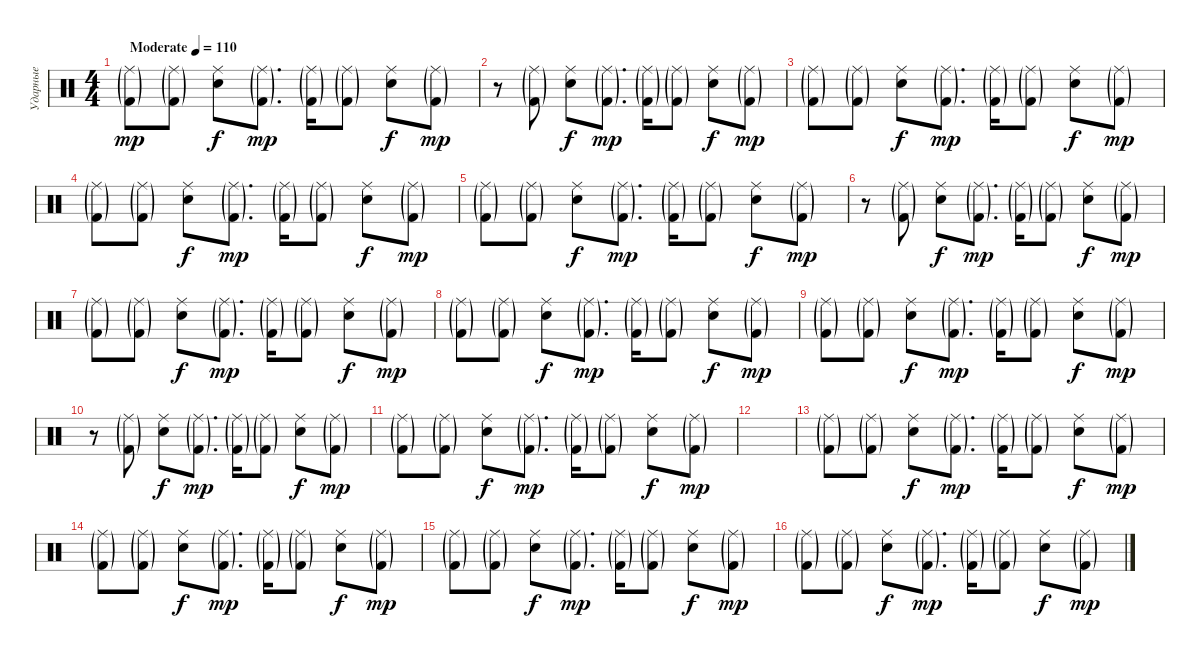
\track ("Ударные" "Ударные") {instrument percussion}
\staff {score}
\articulation defaults
\ts (4 4)
\tempo (110 "Moderate")
\clef neutral
\ks c
("Ride (middle)"{g} "Kick (hit) 2"{g}).8{dy mp} ("Ride (middle)"{g} "Kick (hit) 2"{g}).8 ("Ride (middle)" "Snare (hit) 2").8{dy f} ("Ride (middle)"{g} "Kick (hit) 2"{g}).8{d dy mp} ("Ride (middle)"{g} "Kick (hit) 2"{g}).16 ("Ride (middle)"{g} "Kick (hit) 2"{g}).8 ("Ride (middle)" "Snare (hit) 2").8{dy f} ("Ride (middle)"{g} "Kick (hit) 2"{g}).8{dy mp} |
r.8 ("Ride (middle)"{g} "Kick (hit) 2"{g}).8 ("Ride (middle)" "Snare (hit) 2").8{dy f} ("Ride (middle)"{g} "Kick (hit) 2"{g}).8{d dy mp} ("Ride (middle)"{g} "Kick (hit) 2"{g}).16 ("Ride (middle)"{g} "Kick (hit) 2"{g}).8 ("Ride (middle)" "Snare (hit) 2").8{dy f} ("Ride (middle)"{g} "Kick (hit) 2"{g}).8{dy mp} |
("Ride (middle)"{g} "Kick (hit) 2"{g}).8 ("Ride (middle)"{g} "Kick (hit) 2"{g}).8 ("Ride (middle)" "Snare (hit) 2").8{dy f} ("Ride (middle)"{g} "Kick (hit) 2"{g}).8{d dy mp} ("Ride (middle)"{g} "Kick (hit) 2"{g}).16 ("Ride (middle)"{g} "Kick (hit) 2"{g}).8 ("Ride (middle)" "Snare (hit) 2").8{dy f} ("Ride (middle)"{g} "Kick (hit) 2"{g}).8{dy mp} |
("Ride (middle)"{g} "Kick (hit) 2"{g}).8 ("Ride (middle)"{g} "Kick (hit) 2"{g}).8 ("Ride (middle)" "Snare (hit) 2").8{dy f} ("Ride (middle)"{g} "Kick (hit) 2"{g}).8{d dy mp} ("Ride (middle)"{g} "Kick (hit) 2"{g}).16 ("Ride (middle)"{g} "Kick (hit) 2"{g}).8 ("Ride (middle)" "Snare (hit) 2").8{dy f} ("Ride (middle)"{g} "Kick (hit) 2"{g}).8{dy mp} |
("Ride (middle)"{g} "Kick (hit) 2"{g}).8 ("Ride (middle)"{g} "Kick (hit) 2"{g}).8 ("Ride (middle)" "Snare (hit) 2").8{dy f} ("Ride (middle)"{g} "Kick (hit) 2"{g}).8{d dy mp} ("Ride (middle)"{g} "Kick (hit) 2"{g}).16 ("Ride (middle)"{g} "Kick (hit) 2"{g}).8 ("Ride (middle)" "Snare (hit) 2").8{dy f} ("Ride (middle)"{g} "Kick (hit) 2"{g}).8{dy mp} |
r.8 ("Ride (middle)"{g} "Kick (hit) 2"{g}).8 ("Ride (middle)" "Snare (hit) 2").8{dy f} ("Ride (middle)"{g} "Kick (hit) 2"{g}).8{d dy mp} ("Ride (middle)"{g} "Kick (hit) 2"{g}).16 ("Ride (middle)"{g} "Kick (hit) 2"{g}).8 ("Ride (middle)" "Snare (hit) 2").8{dy f} ("Ride (middle)"{g} "Kick (hit) 2"{g}).8{dy mp} |
("Ride (middle)"{g} "Kick (hit) 2"{g}).8 ("Ride (middle)"{g} "Kick (hit) 2"{g}).8 ("Ride (middle)" "Snare (hit) 2").8{dy f} ("Ride (middle)"{g} "Kick (hit) 2"{g}).8{d dy mp} ("Ride (middle)"{g} "Kick (hit) 2"{g}).16 ("Ride (middle)"{g} "Kick (hit) 2"{g}).8 ("Ride (middle)" "Snare (hit) 2").8{dy f} ("Ride (middle)"{g} "Kick (hit) 2"{g}).8{dy mp} |
("Ride (middle)"{g} "Kick (hit) 2"{g}).8 ("Ride (middle)"{g} "Kick (hit) 2"{g}).8 ("Ride (middle)" "Snare (hit) 2").8{dy f} ("Ride (middle)"{g} "Kick (hit) 2"{g}).8{d dy mp} ("Ride (middle)"{g} "Kick (hit) 2"{g}).16 ("Ride (middle)"{g} "Kick (hit) 2"{g}).8 ("Ride (middle)" "Snare (hit) 2").8{dy f} ("Ride (middle)"{g} "Kick (hit) 2"{g}).8{dy mp} |
("Ride (middle)"{g} "Kick (hit) 2"{g}).8 ("Ride (middle)"{g} "Kick (hit) 2"{g}).8 ("Ride (middle)" "Snare (hit) 2").8{dy f} ("Ride (middle)"{g} "Kick (hit) 2"{g}).8{d dy mp} ("Ride (middle)"{g} "Kick (hit) 2"{g}).16 ("Ride (middle)"{g} "Kick (hit) 2"{g}).8 ("Ride (middle)" "Snare (hit) 2").8{dy f} ("Ride (middle)"{g} "Kick (hit) 2"{g}).8{dy mp} |
r.8 ("Ride (middle)"{g} "Kick (hit) 2"{g}).8 ("Ride (middle)" "Snare (hit) 2").8{dy f} ("Ride (middle)"{g} "Kick (hit) 2"{g}).8{d dy mp} ("Ride (middle)"{g} "Kick (hit) 2"{g}).16 ("Ride (middle)"{g} "Kick (hit) 2"{g}).8 ("Ride (middle)" "Snare (hit) 2").8{dy f} ("Ride (middle)"{g} "Kick (hit) 2"{g}).8{dy mp} |
("Ride (middle)"{g} "Kick (hit) 2"{g}).8 ("Ride (middle)"{g} "Kick (hit) 2"{g}).8 ("Ride (middle)" "Snare (hit) 2").8{dy f} ("Ride (middle)"{g} "Kick (hit) 2"{g}).8{d dy mp} ("Ride (middle)"{g} "Kick (hit) 2"{g}).16 ("Ride (middle)"{g} "Kick (hit) 2"{g}).8 ("Ride (middle)" "Snare (hit) 2").8{dy f} ("Ride (middle)"{g} "Kick (hit) 2"{g}).8{dy mp} |
|
("Ride (middle)"{g} "Kick (hit) 2"{g}).8 ("Ride (middle)"{g} "Kick (hit) 2"{g}).8 ("Ride (middle)" "Snare (hit) 2").8{dy f} ("Ride (middle)"{g} "Kick (hit) 2"{g}).8{d dy mp} ("Ride (middle)"{g} "Kick (hit) 2"{g}).16 ("Ride (middle)"{g} "Kick (hit) 2"{g}).8 ("Ride (middle)" "Snare (hit) 2").8{dy f} ("Ride (middle)"{g} "Kick (hit) 2"{g}).8{dy mp} |
("Ride (middle)"{g} "Kick (hit) 2"{g}).8 ("Ride (middle)"{g} "Kick (hit) 2"{g}).8 ("Ride (middle)" "Snare (hit) 2").8{dy f} ("Ride (middle)"{g} "Kick (hit) 2"{g}).8{d dy mp} ("Ride (middle)"{g} "Kick (hit) 2"{g}).16 ("Ride (middle)"{g} "Kick (hit) 2"{g}).8 ("Ride (middle)" "Snare (hit) 2").8{dy f} ("Ride (middle)"{g} "Kick (hit) 2"{g}).8{dy mp} |
("Ride (middle)"{g} "Kick (hit) 2"{g}).8 ("Ride (middle)"{g} "Kick (hit) 2"{g}).8 ("Ride (middle)" "Snare (hit) 2").8{dy f} ("Ride (middle)"{g} "Kick (hit) 2"{g}).8{d dy mp} ("Ride (middle)"{g} "Kick (hit) 2"{g}).16 ("Ride (middle)"{g} "Kick (hit) 2"{g}).8 ("Ride (middle)" "Snare (hit) 2").8{dy f} ("Ride (middle)"{g} "Kick (hit) 2"{g}).8{dy mp} |
("Ride (middle)"{g} "Kick (hit) 2"{g}).8 ("Ride (middle)"{g} "Kick (hit) 2"{g}).8 ("Ride (middle)" "Snare (hit) 2").8{dy f} ("Ride (middle)"{g} "Kick (hit) 2"{g}).8{d dy mp} ("Ride (middle)"{g} "Kick (hit) 2"{g}).16 ("Ride (middle)"{g} "Kick (hit) 2"{g}).8 ("Ride (middle)" "Snare (hit) 2").8{dy f} ("Ride (middle)"{g} "Kick (hit) 2"{g}).8{dy mp}
